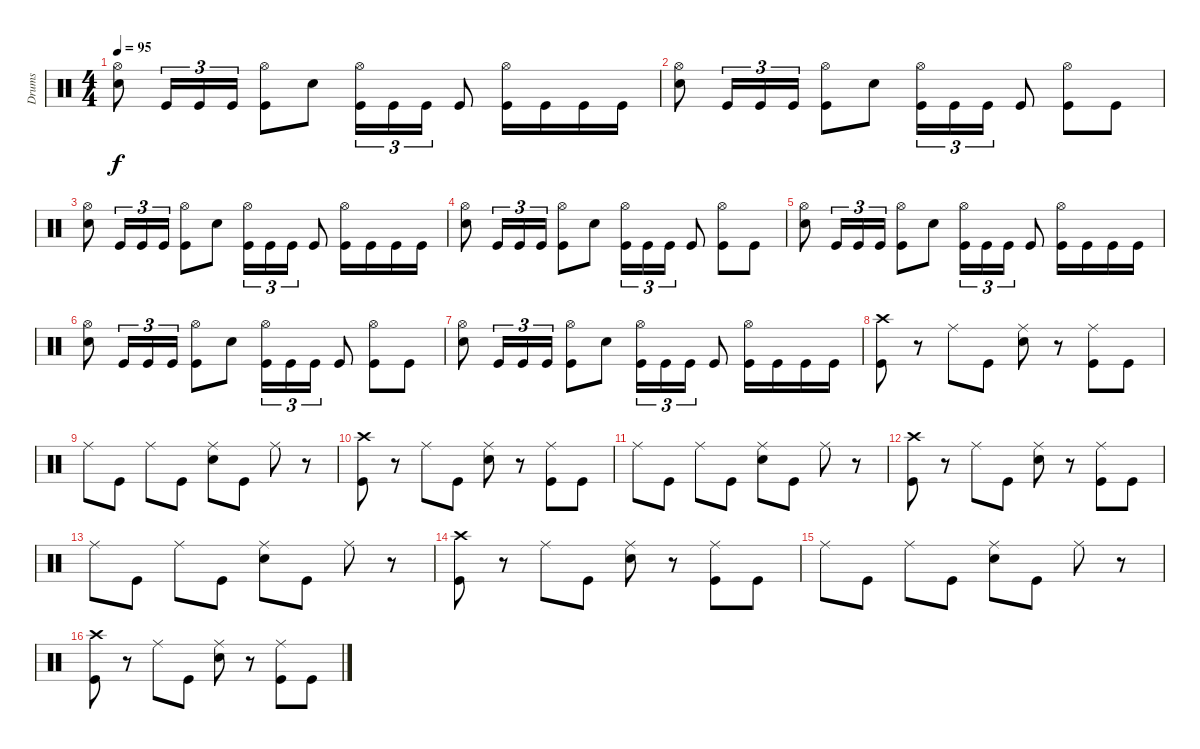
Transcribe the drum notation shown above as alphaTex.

\track ("Drums" "Drums") {instrument percussion}
\staff {score}
\articulation defaults
\ts (4 4)
\tempo 95
\clef neutral
\ks c
("Hi-Hat (open)" "Snare (hit) 2").8{dy f} "Kick (hit)".16{tu (3 2)} "Kick (hit)".16{tu (3 2)} "Kick (hit)".16{tu (3 2)} ("Hi-Hat (open)" "Kick (hit)").8 "Snare (hit) 2".8 ("Hi-Hat (open)" "Kick (hit)").16{tu (3 2)} "Kick (hit)".16{tu (3 2)} "Kick (hit)".16{tu (3 2)} "Kick (hit)".8 ("Hi-Hat (open)" "Kick (hit)").16 "Kick (hit)".16 "Kick (hit)".16 "Kick (hit)".16 |
("Hi-Hat (open)" "Snare (hit) 2").8 "Kick (hit)".16{tu (3 2)} "Kick (hit)".16{tu (3 2)} "Kick (hit)".16{tu (3 2)} ("Hi-Hat (open)" "Kick (hit)").8 "Snare (hit) 2".8 ("Hi-Hat (open)" "Kick (hit)").16{tu (3 2)} "Kick (hit)".16{tu (3 2)} "Kick (hit)".16{tu (3 2)} "Kick (hit)".8 ("Hi-Hat (open)" "Kick (hit)").8 "Kick (hit)".8 |
("Hi-Hat (open)" "Snare (hit) 2").8 "Kick (hit)".16{tu (3 2)} "Kick (hit)".16{tu (3 2)} "Kick (hit)".16{tu (3 2)} ("Hi-Hat (open)" "Kick (hit)").8 "Snare (hit) 2".8 ("Hi-Hat (open)" "Kick (hit)").16{tu (3 2)} "Kick (hit)".16{tu (3 2)} "Kick (hit)".16{tu (3 2)} "Kick (hit)".8 ("Hi-Hat (open)" "Kick (hit)").16 "Kick (hit)".16 "Kick (hit)".16 "Kick (hit)".16 |
("Hi-Hat (open)" "Snare (hit) 2").8 "Kick (hit)".16{tu (3 2)} "Kick (hit)".16{tu (3 2)} "Kick (hit)".16{tu (3 2)} ("Hi-Hat (open)" "Kick (hit)").8 "Snare (hit) 2".8 ("Hi-Hat (open)" "Kick (hit)").16{tu (3 2)} "Kick (hit)".16{tu (3 2)} "Kick (hit)".16{tu (3 2)} "Kick (hit)".8 ("Hi-Hat (open)" "Kick (hit)").8 "Kick (hit)".8 |
("Hi-Hat (open)" "Snare (hit) 2").8 "Kick (hit)".16{tu (3 2)} "Kick (hit)".16{tu (3 2)} "Kick (hit)".16{tu (3 2)} ("Hi-Hat (open)" "Kick (hit)").8 "Snare (hit) 2".8 ("Hi-Hat (open)" "Kick (hit)").16{tu (3 2)} "Kick (hit)".16{tu (3 2)} "Kick (hit)".16{tu (3 2)} "Kick (hit)".8 ("Hi-Hat (open)" "Kick (hit)").16 "Kick (hit)".16 "Kick (hit)".16 "Kick (hit)".16 |
("Hi-Hat (open)" "Snare (hit) 2").8 "Kick (hit)".16{tu (3 2)} "Kick (hit)".16{tu (3 2)} "Kick (hit)".16{tu (3 2)} ("Hi-Hat (open)" "Kick (hit)").8 "Snare (hit) 2".8 ("Hi-Hat (open)" "Kick (hit)").16{tu (3 2)} "Kick (hit)".16{tu (3 2)} "Kick (hit)".16{tu (3 2)} "Kick (hit)".8 ("Hi-Hat (open)" "Kick (hit)").8 "Kick (hit)".8 |
("Hi-Hat (open)" "Snare (hit) 2").8 "Kick (hit)".16{tu (3 2)} "Kick (hit)".16{tu (3 2)} "Kick (hit)".16{tu (3 2)} ("Hi-Hat (open)" "Kick (hit)").8 "Snare (hit) 2".8 ("Hi-Hat (open)" "Kick (hit)").16{tu (3 2)} "Kick (hit)".16{tu (3 2)} "Kick (hit)".16{tu (3 2)} "Kick (hit)".8 ("Hi-Hat (open)" "Kick (hit)").16 "Kick (hit)".16 "Kick (hit)".16 "Kick (hit)".16 |
("Crash high (hit)" "Kick (hit)").8 r.8 "Ride (middle)".8 "Kick (hit)".8 ("Ride (middle)" "Snare (hit) 2").8 r.8 ("Ride (middle)" "Kick (hit)").8 "Kick (hit)".8 |
"Ride (middle)".8 "Kick (hit)".8 "Ride (middle)".8 "Kick (hit)".8 ("Ride (middle)" "Snare (hit) 2").8 "Kick (hit)".8 "Ride (middle)".8 r.8 |
("Crash high (hit)" "Kick (hit)").8 r.8 "Ride (middle)".8 "Kick (hit)".8 ("Ride (middle)" "Snare (hit) 2").8 r.8 ("Ride (middle)" "Kick (hit)").8 "Kick (hit)".8 |
"Ride (middle)".8 "Kick (hit)".8 "Ride (middle)".8 "Kick (hit)".8 ("Ride (middle)" "Snare (hit) 2").8 "Kick (hit)".8 "Ride (middle)".8 r.8 |
("Crash high (hit)" "Kick (hit)").8 r.8 "Ride (middle)".8 "Kick (hit)".8 ("Ride (middle)" "Snare (hit) 2").8 r.8 ("Ride (middle)" "Kick (hit)").8 "Kick (hit)".8 |
"Ride (middle)".8 "Kick (hit)".8 "Ride (middle)".8 "Kick (hit)".8 ("Ride (middle)" "Snare (hit) 2").8 "Kick (hit)".8 "Ride (middle)".8 r.8 |
("Crash high (hit)" "Kick (hit)").8 r.8 "Ride (middle)".8 "Kick (hit)".8 ("Ride (middle)" "Snare (hit) 2").8 r.8 ("Ride (middle)" "Kick (hit)").8 "Kick (hit)".8 |
"Ride (middle)".8 "Kick (hit)".8 "Ride (middle)".8 "Kick (hit)".8 ("Ride (middle)" "Snare (hit) 2").8 "Kick (hit)".8 "Ride (middle)".8 r.8 |
("Crash high (hit)" "Kick (hit)").8 r.8 "Ride (middle)".8 "Kick (hit)".8 ("Ride (middle)" "Snare (hit) 2").8 r.8 ("Ride (middle)" "Kick (hit)").8 "Kick (hit)".8
